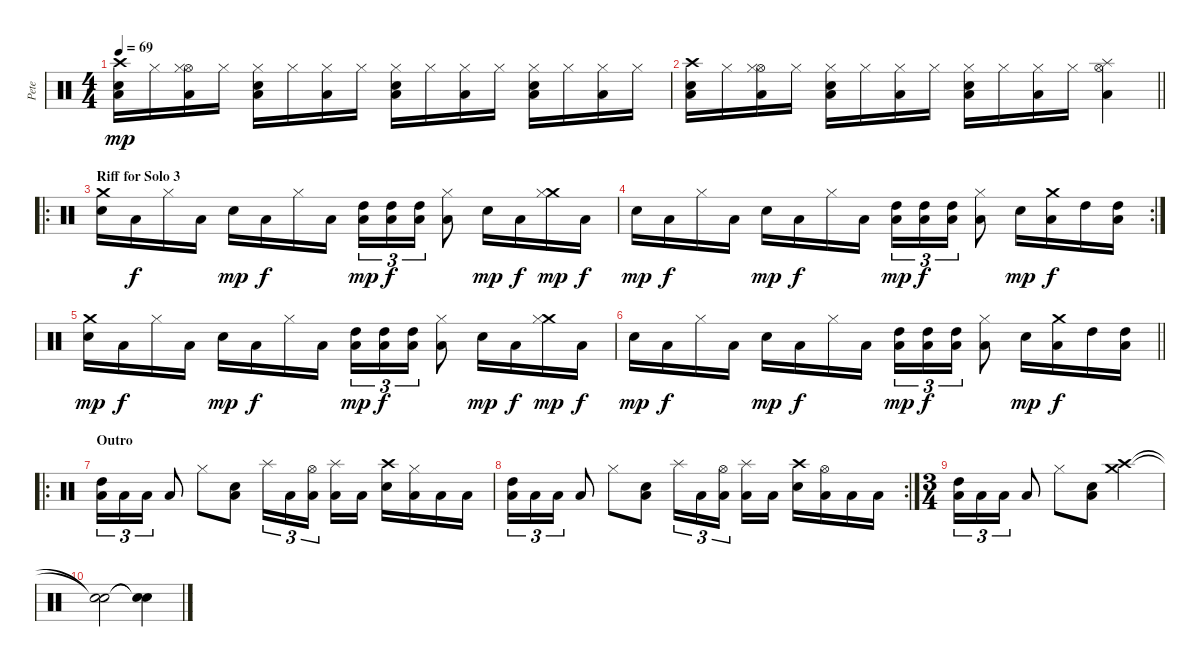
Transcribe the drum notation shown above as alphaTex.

\track ("Pete" "Pete") {instrument percussion}
\staff {score}
\articulation defaults
\ts (4 4)
\tempo 69
\clef neutral
\ks c
("Electric Snare (hit)" "Crash high (hit)" "Low Floor Tom (hit)").16{dy mp} "Hi-Hat (closed)".16 ("Hi-Hat (open)" "Hi-Hat (closed)" "Low Floor Tom (hit)").16 "Hi-Hat (closed)".16 ("Electric Snare (hit)" "Hi-Hat (closed)" "Low Floor Tom (hit)").16 "Hi-Hat (closed)".16 ("Hi-Hat (closed)" "Low Floor Tom (hit)").16 "Hi-Hat (closed)".16 ("Electric Snare (hit)" "Hi-Hat (closed)" "Low Floor Tom (hit)").16 "Hi-Hat (closed)".16 ("Hi-Hat (closed)" "Low Floor Tom (hit)").16 "Hi-Hat (closed)".16 ("Electric Snare (hit)" "Hi-Hat (closed)" "Low Floor Tom (hit)").16 "Hi-Hat (closed)".16 ("Hi-Hat (closed)" "Low Floor Tom (hit)").16 "Hi-Hat (closed)".16 |
\barLineRight lightlight
("Electric Snare (hit)" "Crash high (hit)" "Low Floor Tom (hit)").16 "Hi-Hat (closed)".16 ("Hi-Hat (open)" "Hi-Hat (closed)" "Low Floor Tom (hit)").16 "Hi-Hat (closed)".16 ("Electric Snare (hit)" "Hi-Hat (closed)" "Low Floor Tom (hit)").16 "Hi-Hat (closed)".16 ("Hi-Hat (closed)" "Low Floor Tom (hit)").16 "Hi-Hat (closed)".16 ("Electric Snare (hit)" "Hi-Hat (closed)" "Low Floor Tom (hit)").16 "Hi-Hat (closed)".16 ("Hi-Hat (closed)" "Low Floor Tom (hit)").16 "Hi-Hat (closed)".16 ("Splash (hit)" "Hi-Hat (open)" "Low Floor Tom (hit)").4 |
\ro
\section ("" "Riff for Solo 3")
("Electric Snare (hit)" "Crash medium (hit)").16 "Low Floor Tom (hit)".16{dy f} "Hi-Hat (closed)".16 "Low Floor Tom (hit)".16 "Electric Snare (hit)".16{dy mp} "Low Floor Tom (hit)".16{dy f} "Hi-Hat (closed)".16 "Low Floor Tom (hit)".16 ("High Tom (hit)" "Low Floor Tom (hit)").16{tu (3 2) dy mp} ("High Tom (hit)" "Low Floor Tom (hit)").16{tu (3 2) dy f} ("High Tom (hit)" "Low Floor Tom (hit)").16{tu (3 2)} ("Hi-Hat (closed)" "Low Floor Tom (hit)").8 "Electric Snare (hit)".16{dy mp} "Low Floor Tom (hit)".16{dy f} ("Crash medium (hit)" "Hi-Hat (closed)").16{dy mp} "Low Floor Tom (hit)".16{dy f} |
\rc 2 "Electric Snare (hit)".16{dy mp} "Low Floor Tom (hit)".16{dy f} "Hi-Hat (closed)".16 "Low Floor Tom (hit)".16 "Electric Snare (hit)".16{dy mp} "Low Floor Tom (hit)".16{dy f} "Hi-Hat (closed)".16 "Low Floor Tom (hit)".16
("High Tom (hit)" "Low Floor Tom (hit)").16{tu (3 2) dy mp} ("High Tom (hit)" "Low Floor Tom (hit)").16{tu (3 2) dy f} ("High Tom (hit)" "Low Floor Tom (hit)").16{tu (3 2)} ("Hi-Hat (closed)" "Low Floor Tom (hit)").8 "Electric Snare (hit)".16{dy mp} ("Crash medium (hit)" "Low Floor Tom (hit)").16{dy f} "High Tom (hit)".16 ("High Tom (hit)" "Low Floor Tom (hit)").16 |
("Electric Snare (hit)" "Crash medium (hit)").16{dy mp} "Low Floor Tom (hit)".16{dy f} "Hi-Hat (closed)".16 "Low Floor Tom (hit)".16 "Electric Snare (hit)".16{dy mp} "Low Floor Tom (hit)".16{dy f} "Hi-Hat (closed)".16 "Low Floor Tom (hit)".16 ("High Tom (hit)" "Low Floor Tom (hit)").16{tu (3 2) dy mp} ("High Tom (hit)" "Low Floor Tom (hit)").16{tu (3 2) dy f} ("High Tom (hit)" "Low Floor Tom (hit)").16{tu (3 2)} ("Hi-Hat (closed)" "Low Floor Tom (hit)").8 "Electric Snare (hit)".16{dy mp} "Low Floor Tom (hit)".16{dy f} ("Crash medium (hit)" "Hi-Hat (closed)").16{dy mp} "Low Floor Tom (hit)".16{dy f} |
\barLineRight lightlight "Electric Snare (hit)".16{dy mp} "Low Floor Tom (hit)".16{dy f} "Hi-Hat (closed)".16 "Low Floor Tom (hit)".16 "Electric Snare (hit)".16{dy mp} "Low Floor Tom (hit)".16{dy f} "Hi-Hat (closed)".16 "Low Floor Tom (hit)".16
("High Tom (hit)" "Low Floor Tom (hit)").16{tu (3 2) dy mp} ("High Tom (hit)" "Low Floor Tom (hit)").16{tu (3 2) dy f} ("High Tom (hit)" "Low Floor Tom (hit)").16{tu (3 2)} ("Hi-Hat (closed)" "Low Floor Tom (hit)").8 "Electric Snare (hit)".16{dy mp} ("Crash medium (hit)" "Low Floor Tom (hit)").16{dy f} "High Tom (hit)".16 ("High Tom (hit)" "Low Floor Tom (hit)").16 |
\ro
\section ("" "Outro")
("High Tom (hit)" "Low Floor Tom (hit)").16{tu (3 2)} "Low Floor Tom (hit)".16{tu (3 2)} "Low Floor Tom (hit)".16{tu (3 2)} "Low Floor Tom (hit)".8 "Hi-Hat (closed)".8 ("Electric Snare (hit)" "Low Floor Tom (hit)").8 "Splash (hit)".16{tu (3 2)} "Low Floor Tom (hit)".16{tu (3 2)} ("Hi-Hat (open)" "Low Floor Tom (hit)").16{tu (3 2) beam splitsecondary} ("Splash (hit)" "Low Floor Tom (hit)").16 "Low Floor Tom (hit)".16 ("Electric Snare (hit)" "Crash high (hit)").16 ("Hi-Hat (closed)" "Low Floor Tom (hit)").16 "Low Floor Tom (hit)".16 "Low Floor Tom (hit)".16 |
\rc 2
("High Tom (hit)" "Low Floor Tom (hit)").16{tu (3 2)} "Low Floor Tom (hit)".16{tu (3 2)} "Low Floor Tom (hit)".16{tu (3 2)} "Low Floor Tom (hit)".8 "Hi-Hat (closed)".8 ("Electric Snare (hit)" "Low Floor Tom (hit)").8 "Splash (hit)".16{tu (3 2)} "Low Floor Tom (hit)".16{tu (3 2)} ("Hi-Hat (open)" "Low Floor Tom (hit)").16{tu (3 2) beam splitsecondary} ("Splash (hit)" "Low Floor Tom (hit)").16 "Low Floor Tom (hit)".16 ("Electric Snare (hit)" "Crash high (hit)").16 ("Hi-Hat (open)" "Low Floor Tom (hit)").16 "Low Floor Tom (hit)".16 "Low Floor Tom (hit)".16 |
\ts (3 4)
("High Tom (hit)" "Low Floor Tom (hit)").16{tu (3 2)} "Low Floor Tom (hit)".16{tu (3 2)} "Low Floor Tom (hit)".16{tu (3 2)} "Low Floor Tom (hit)".8 "Hi-Hat (closed)".8 ("Electric Snare (hit)" "Low Floor Tom (hit)").8 ("Crash high (hit)" "Crash medium (hit)").4 |
("Snare (hit)"{t} "Snare (hit)"{t}).2 ("Snare (hit)"{t} "Snare (hit)"{t}).4
